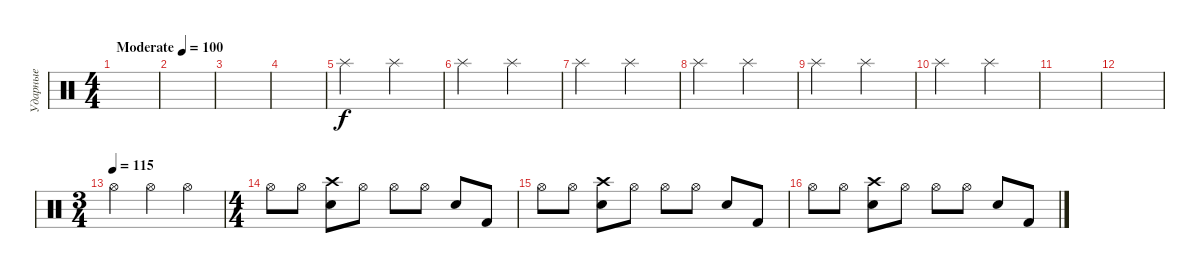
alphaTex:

\track ("Ударные" "Ударные") {instrument percussion}
\staff {score}
\articulation defaults
\ts (4 4)
\tempo (100 "Moderate")
\clef neutral
\ks c
|
|
|
|
"Splash (hit)".2 "Splash (hit)".2 |
"Splash (hit)".2 "Splash (hit)".2 |
"Splash (hit)".2 "Splash (hit)".2 |
"Splash (hit)".2 "Splash (hit)".2 |
"Splash (hit)".2 "Splash (hit)".2 |
"Splash (hit)".2 "Splash (hit)".2 |
|
|
\ts (3 4)
\tempo (115)
"Hi-Hat (open)".4 "Hi-Hat (open)".4 "Hi-Hat (open)".4 |
\ts (4 4)
"Hi-Hat (open)".8 "Hi-Hat (open)".8 ("Crash high (hit)" "Snare (hit) 2").8 "Hi-Hat (open)".8 "Hi-Hat (open)".8 "Hi-Hat (open)".8 "Snare (hit) 2".8 "Kick (hit) 2".8 |
"Hi-Hat (open)".8 "Hi-Hat (open)".8 ("Crash high (hit)" "Snare (hit) 2").8 "Hi-Hat (open)".8 "Hi-Hat (open)".8 "Hi-Hat (open)".8 "Snare (hit) 2".8 "Kick (hit) 2".8 |
"Hi-Hat (open)".8 "Hi-Hat (open)".8 ("Crash high (hit)" "Snare (hit) 2").8 "Hi-Hat (open)".8 "Hi-Hat (open)".8 "Hi-Hat (open)".8 "Snare (hit) 2".8 "Kick (hit) 2".8
